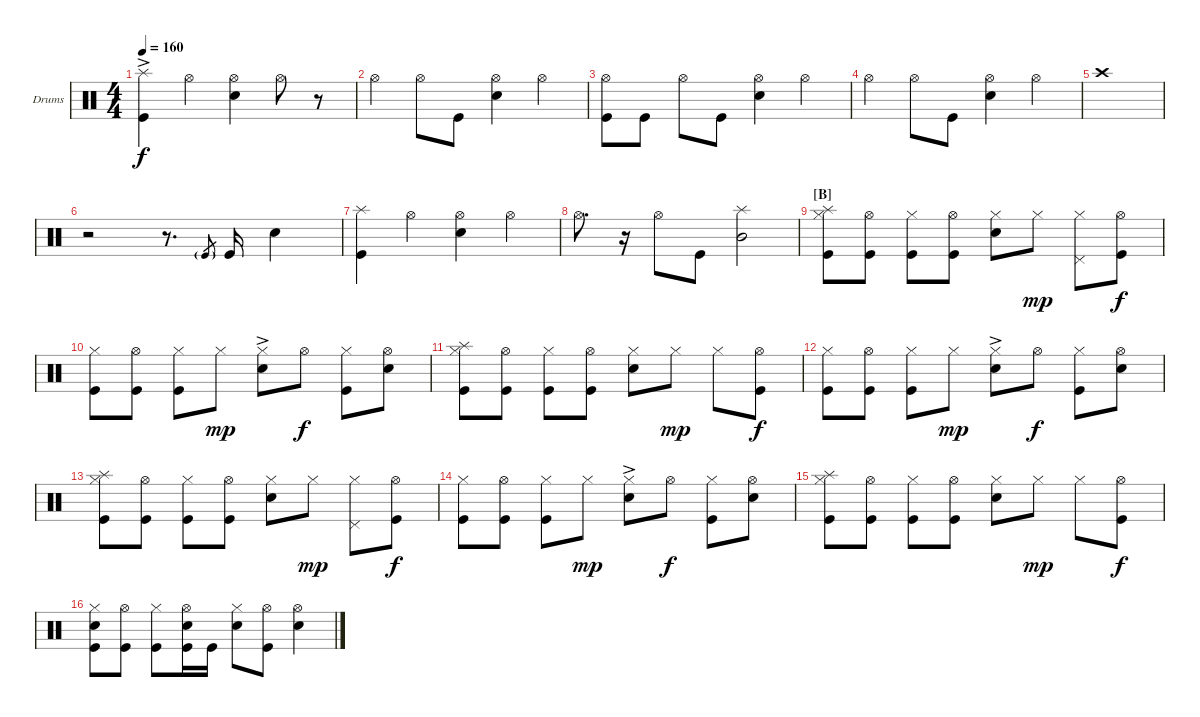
\defaultSystemsLayout 4
\bracketExtendMode groupsimilarinstruments
\firstSystemTrackNameOrientation horizontal
\otherSystemsTrackNameOrientation horizontal
\track ("Drumkit" "Drums") {instrument percussion}
\staff {score}
\articulation defaults
\ts (4 4)
\tempo 160
\clef neutral
\ks c
("Splash (hit)"{ac} "Kick (hit)").4{dy f} "Hi-Hat (open)".4 ("Hi-Hat (open)" "Snare (hit) 2").4 "Hi-Hat (open)".8 r.8 |
"Hi-Hat (open)".4 "Hi-Hat (open)".8 "Kick (hit)".8 ("Hi-Hat (open)" "Snare (hit) 2").4 "Hi-Hat (open)".4 |
("Kick (hit)" "Hi-Hat (open)").8 "Kick (hit)".8 "Hi-Hat (open)".8 "Kick (hit)".8 ("Hi-Hat (open)" "Snare (hit) 2").4 "Hi-Hat (open)".4 |
"Hi-Hat (open)".4 "Hi-Hat (open)".8 "Kick (hit)".8 ("Hi-Hat (open)" "Snare (hit) 2").4 "Hi-Hat (open)".4 |
"Crash high (hit)".1 |
r.2 r.8{d} "Kick (hit)"{g}.8{gr} "Kick (hit)".16 "Snare (hit) 2".4 |
("Kick (hit)" "Splash (hit)").4 "Hi-Hat (open)".4 ("Hi-Hat (open)" "Snare (hit) 2").4 "Hi-Hat (open)".4 |
"Hi-Hat (open)".8{d} r.16 "Hi-Hat (open)".8 "Kick (hit)".8 ("Mid Tom (hit)" "Splash (hit)").2 |
\section ("B" "")
("Splash (hit)" "Kick (hit)" "Hi-Hat (closed)").8 ("Kick (hit)" "Hi-Hat (open)").8 ("Kick (hit)" "Hi-Hat (closed)").8 ("Kick (hit)" "Hi-Hat (open)").8 ("Snare (hit) 2" "Hi-Hat (closed)").8 "Hi-Hat (closed)".8{dy mp} ("Pedal Hi-Hat (hit)" "Hi-Hat (closed)").8 ("Kick (hit)" "Hi-Hat (open)").8{dy f} |
("Kick (hit)" "Hi-Hat (closed)").8 ("Kick (hit)" "Hi-Hat (open)").8 ("Kick (hit)" "Hi-Hat (closed)").8 "Hi-Hat (closed)".8{dy mp} ("Snare (hit) 2"{ac} "Hi-Hat (closed)").8 "Hi-Hat (open)".8{dy f} ("Hi-Hat (closed)" "Kick (hit)").8 ("Snare (hit) 2" "Hi-Hat (open)").8 |
("Splash (hit)" "Kick (hit)" "Hi-Hat (closed)").8 ("Kick (hit)" "Hi-Hat (open)").8 ("Hi-Hat (closed)" "Kick (hit)").8 ("Kick (hit)" "Hi-Hat (open)").8 ("Hi-Hat (closed)" "Snare (hit) 2").8 "Hi-Hat (closed)".8{dy mp} "Hi-Hat (closed)".8 ("Kick (hit)" "Hi-Hat (open)").8{dy f} |
("Hi-Hat (closed)" "Kick (hit)").8 ("Kick (hit)" "Hi-Hat (open)").8 ("Hi-Hat (closed)" "Kick (hit)").8 "Hi-Hat (closed)".8{dy mp} ("Snare (hit) 2"{ac} "Hi-Hat (closed)").8 "Hi-Hat (open)".8{dy f} ("Hi-Hat (closed)" "Kick (hit)").8 ("Snare (hit) 2" "Hi-Hat (open)").8 |
("Splash (hit)" "Kick (hit)" "Hi-Hat (closed)").8 ("Kick (hit)" "Hi-Hat (open)").8 ("Kick (hit)" "Hi-Hat (closed)").8 ("Kick (hit)" "Hi-Hat (open)").8 ("Snare (hit) 2" "Hi-Hat (closed)").8 "Hi-Hat (closed)".8{dy mp} ("Pedal Hi-Hat (hit)" "Hi-Hat (closed)").8 ("Kick (hit)" "Hi-Hat (open)").8{dy f} |
("Kick (hit)" "Hi-Hat (closed)").8 ("Kick (hit)" "Hi-Hat (open)").8 ("Kick (hit)" "Hi-Hat (closed)").8 "Hi-Hat (closed)".8{dy mp} ("Snare (hit) 2"{ac} "Hi-Hat (closed)").8 "Hi-Hat (open)".8{dy f} ("Hi-Hat (closed)" "Kick (hit)").8 ("Snare (hit) 2" "Hi-Hat (open)").8 |
("Splash (hit)" "Kick (hit)" "Hi-Hat (closed)").8 ("Kick (hit)" "Hi-Hat (open)").8 ("Hi-Hat (closed)" "Kick (hit)").8 ("Kick (hit)" "Hi-Hat (open)").8 ("Hi-Hat (closed)" "Snare (hit) 2").8 "Hi-Hat (closed)".8{dy mp} "Hi-Hat (closed)".8 ("Kick (hit)" "Hi-Hat (open)").8{dy f} |
("Hi-Hat (closed)" "Kick (hit)" "Snare (hit) 2").8 ("Kick (hit)" "Hi-Hat (open)").8 ("Hi-Hat (closed)" "Kick (hit)").8 ("Kick (hit)" "Snare (hit) 2" "Hi-Hat (open)").16 "Kick (hit)".16 ("Snare (hit) 2" "Hi-Hat (closed)").8 ("Kick (hit)" "Hi-Hat (open)").8 ("Snare (hit) 2" "Hi-Hat (open)").4
